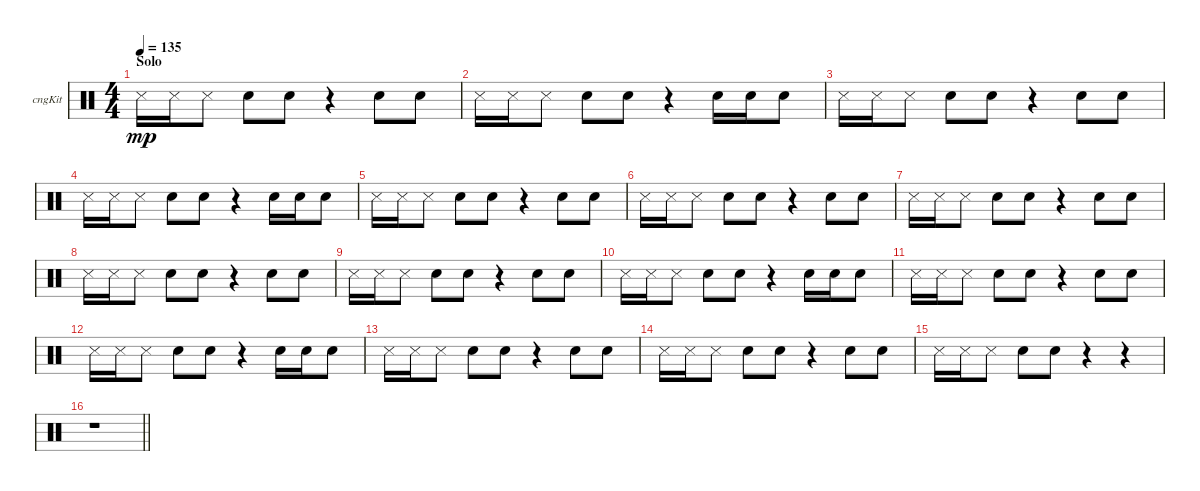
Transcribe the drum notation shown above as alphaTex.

\bracketExtendMode groupsimilarinstruments
\firstSystemTrackNameOrientation horizontal
\otherSystemsTrackNameOrientation horizontal
\track ("Congas" "cngKit") {instrument percussion}
\staff {score}
\articulation defaults
\ts (4 4)
\section ("" "Solo")
\tempo 135
\clef neutral
\ks c "Snare (side stick) 3".16{dy mp} "Snare (side stick) 3".16 "Snare (side stick) 3".8 "Snare (hit) 2".8 "Snare (hit) 2".8
r.4 "Snare (hit) 2".8 "Snare (hit) 2".8 |
"Snare (side stick) 3".16 "Snare (side stick) 3".16 "Snare (side stick) 3".8 "Snare (hit) 2".8 "Snare (hit) 2".8 r.4 "Snare (hit) 2".16 "Snare (hit) 2".16 "Snare (hit) 2".8 |
"Snare (side stick) 3".16 "Snare (side stick) 3".16 "Snare (side stick) 3".8 "Snare (hit) 2".8 "Snare (hit) 2".8 r.4 "Snare (hit) 2".8 "Snare (hit) 2".8 |
"Snare (side stick) 3".16 "Snare (side stick) 3".16 "Snare (side stick) 3".8 "Snare (hit) 2".8 "Snare (hit) 2".8 r.4 "Snare (hit) 2".16 "Snare (hit) 2".16 "Snare (hit) 2".8 |
"Snare (side stick) 3".16 "Snare (side stick) 3".16 "Snare (side stick) 3".8 "Snare (hit) 2".8 "Snare (hit) 2".8 r.4 "Snare (hit) 2".8 "Snare (hit) 2".8 |
"Snare (side stick) 3".16 "Snare (side stick) 3".16 "Snare (side stick) 3".8 "Snare (hit) 2".8 "Snare (hit) 2".8 r.4 "Snare (hit) 2".8 "Snare (hit) 2".8 |
"Snare (side stick) 3".16 "Snare (side stick) 3".16 "Snare (side stick) 3".8 "Snare (hit) 2".8 "Snare (hit) 2".8 r.4 "Snare (hit) 2".8 "Snare (hit) 2".8 |
"Snare (side stick) 3".16 "Snare (side stick) 3".16 "Snare (side stick) 3".8 "Snare (hit) 2".8 "Snare (hit) 2".8 r.4 "Snare (hit) 2".8 "Snare (hit) 2".8 |
"Snare (side stick) 3".16 "Snare (side stick) 3".16 "Snare (side stick) 3".8 "Snare (hit) 2".8 "Snare (hit) 2".8 r.4 "Snare (hit) 2".8 "Snare (hit) 2".8 |
"Snare (side stick) 3".16 "Snare (side stick) 3".16 "Snare (side stick) 3".8 "Snare (hit) 2".8 "Snare (hit) 2".8 r.4 "Snare (hit) 2".16 "Snare (hit) 2".16 "Snare (hit) 2".8 |
"Snare (side stick) 3".16 "Snare (side stick) 3".16 "Snare (side stick) 3".8 "Snare (hit) 2".8 "Snare (hit) 2".8 r.4 "Snare (hit) 2".8 "Snare (hit) 2".8 |
"Snare (side stick) 3".16 "Snare (side stick) 3".16 "Snare (side stick) 3".8 "Snare (hit) 2".8 "Snare (hit) 2".8 r.4 "Snare (hit) 2".16 "Snare (hit) 2".16 "Snare (hit) 2".8 |
"Snare (side stick) 3".16 "Snare (side stick) 3".16 "Snare (side stick) 3".8 "Snare (hit) 2".8 "Snare (hit) 2".8 r.4 "Snare (hit) 2".8 "Snare (hit) 2".8 |
"Snare (side stick) 3".16 "Snare (side stick) 3".16 "Snare (side stick) 3".8 "Snare (hit) 2".8 "Snare (hit) 2".8 r.4 "Snare (hit) 2".8 "Snare (hit) 2".8 |
"Snare (side stick) 3".16 "Snare (side stick) 3".16 "Snare (side stick) 3".8 "Snare (hit) 2".8 "Snare (hit) 2".8 r.4 r.4 |
\barLineRight lightlight
r.1
